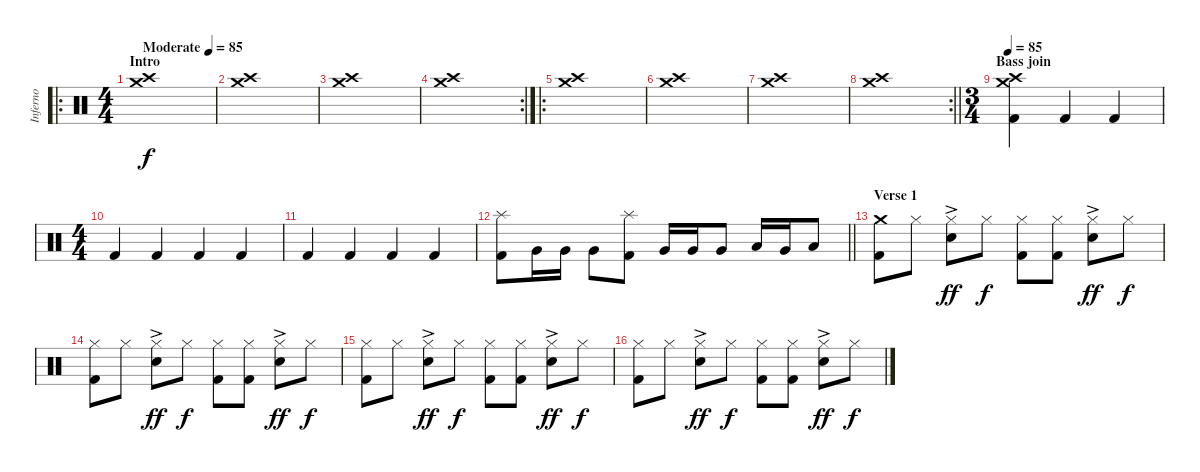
\track ("Inferno" "Inferno") {instrument percussion}
\staff {score}
\articulation defaults
\ro
\ts (4 4)
\section ("" "Intro")
\tempo (85 "Moderate")
\tempo 70
\tempo (85 "Moderate")
\clef neutral
\ks c
("Crash medium (hit)" "Crash high (hit)").1{dy f} |
("Crash medium (hit)" "Crash high (hit)").1 |
("Crash medium (hit)" "Crash high (hit)").1 |
\rc 2
("Crash medium (hit)" "Crash high (hit)").1 |
\ro
("Crash medium (hit)" "Crash high (hit)").1 |
("Crash medium (hit)" "Crash high (hit)").1 |
("Crash medium (hit)" "Crash high (hit)").1 |
\rc 2
\barLineRight lightlight
("Crash medium (hit)" "Crash high (hit)").1 |
\ts (3 4)
\section ("" "Bass join")
\tempo 85
("Crash medium (hit)" "Kick (hit) 2" "Crash high (hit)").4 "Kick (hit) 2".4 "Kick (hit) 2".4 |
\ts (4 4)
"Kick (hit) 2".4 "Kick (hit) 2".4 "Kick (hit) 2".4 "Kick (hit) 2".4 |
"Kick (hit) 2".4 "Kick (hit) 2".4 "Kick (hit) 2".4 "Kick (hit) 2".4 |
\barLineRight lightlight
("Splash (hit)" "Kick (hit) 2").8 "Very Low Tom (hit)".16 "Very Low Tom (hit)".16 "Very Low Tom (hit)".8 ("Splash (hit)" "Kick (hit) 2").8 "Very Low Tom (hit)".16 "Very Low Tom (hit)".16 "Very Low Tom (hit)".8 "Low Tom (hit)".16 "Very Low Tom (hit)".16 "Low Floor Tom (hit)".8 |
\section ("" "Verse 1")
("Crash medium (hit)" "Kick (hit) 2").8 "Hi-Hat (closed)".8 ("Hi-Hat (closed)" "Electric Snare (hit)"{ac}).8{dy ff} "Hi-Hat (closed)".8{dy f} ("Hi-Hat (closed)" "Kick (hit) 2").8 ("Hi-Hat (closed)" "Kick (hit) 2").8 ("Hi-Hat (closed)" "Electric Snare (hit)"{ac}).8{dy ff} "Hi-Hat (closed)".8{dy f} |
("Hi-Hat (closed)" "Kick (hit) 2").8 "Hi-Hat (closed)".8 ("Hi-Hat (closed)" "Electric Snare (hit)"{ac}).8{dy ff} "Hi-Hat (closed)".8{dy f} ("Hi-Hat (closed)" "Kick (hit) 2").8 ("Hi-Hat (closed)" "Kick (hit) 2").8 ("Hi-Hat (closed)" "Electric Snare (hit)"{ac}).8{dy ff} "Hi-Hat (closed)".8{dy f} |
("Hi-Hat (closed)" "Kick (hit) 2").8 "Hi-Hat (closed)".8 ("Hi-Hat (closed)" "Electric Snare (hit)"{ac}).8{dy ff} "Hi-Hat (closed)".8{dy f} ("Hi-Hat (closed)" "Kick (hit) 2").8 ("Hi-Hat (closed)" "Kick (hit) 2").8 ("Hi-Hat (closed)" "Electric Snare (hit)"{ac}).8{dy ff} "Hi-Hat (closed)".8{dy f} |
("Hi-Hat (closed)" "Kick (hit) 2").8 "Hi-Hat (closed)".8 ("Hi-Hat (closed)" "Electric Snare (hit)"{ac}).8{dy ff} "Hi-Hat (closed)".8{dy f} ("Hi-Hat (closed)" "Kick (hit) 2").8 ("Hi-Hat (closed)" "Kick (hit) 2").8 ("Hi-Hat (closed)" "Electric Snare (hit)"{ac}).8{dy ff} "Hi-Hat (closed)".8{dy f}
